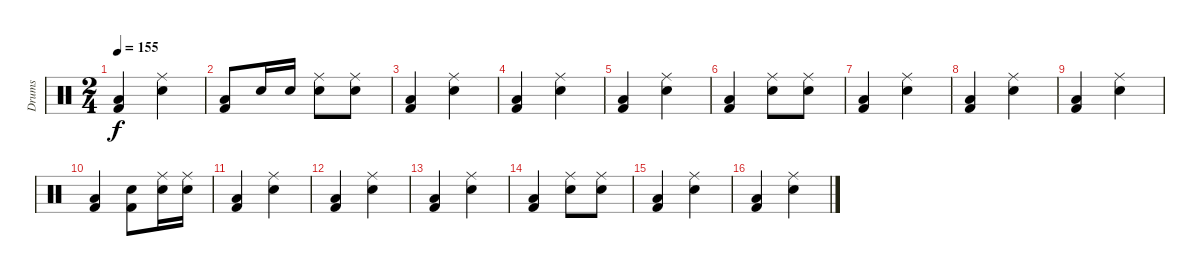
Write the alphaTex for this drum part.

\track ("Drums" "Drums") {instrument percussion}
\staff {score}
\articulation defaults
\ts (2 4)
\tempo 155
\clef neutral
\ks c
("Low Floor Tom (hit)" "Kick (hit) 2").4{dy f} ("Snare (hit) 2" "Ride (middle)").4 |
("Low Floor Tom (hit)" "Kick (hit) 2").8 "Snare (hit) 2".16 "Snare (hit) 2".16 ("Snare (hit) 2" "Ride (middle)").8 ("Snare (hit) 2" "Ride (middle)").8 |
("Low Floor Tom (hit)" "Kick (hit) 2").4 ("Snare (hit) 2" "Ride (middle)").4 |
("Low Floor Tom (hit)" "Kick (hit) 2").4 ("Snare (hit) 2" "Ride (middle)").4 |
("Low Floor Tom (hit)" "Kick (hit) 2").4 ("Snare (hit) 2" "Ride (middle)").4 |
("Low Floor Tom (hit)" "Kick (hit) 2").4 ("Snare (hit) 2" "Ride (middle)").8 ("Snare (hit) 2" "Ride (middle)").8 |
("Low Floor Tom (hit)" "Kick (hit) 2").4 ("Snare (hit) 2" "Ride (middle)").4 |
("Low Floor Tom (hit)" "Kick (hit) 2").4 ("Snare (hit) 2" "Ride (middle)").4 |
("Low Floor Tom (hit)" "Kick (hit) 2").4 ("Snare (hit) 2" "Ride (middle)").4 |
("Low Floor Tom (hit)" "Kick (hit) 2").4 ("Snare (hit) 2" "Kick (hit) 2").8 ("Snare (hit) 2" "Ride (middle)").16 ("Snare (hit) 2" "Ride (middle)").16 |
("Low Floor Tom (hit)" "Kick (hit) 2").4 ("Snare (hit) 2" "Ride (middle)").4 |
("Low Floor Tom (hit)" "Kick (hit) 2").4 ("Snare (hit) 2" "Ride (middle)").4 |
("Low Floor Tom (hit)" "Kick (hit) 2").4 ("Snare (hit) 2" "Ride (middle)").4 |
("Low Floor Tom (hit)" "Kick (hit) 2").4 ("Snare (hit) 2" "Ride (middle)").8 ("Snare (hit) 2" "Ride (middle)").8 |
("Low Floor Tom (hit)" "Kick (hit) 2").4 ("Snare (hit) 2" "Ride (middle)").4 |
("Low Floor Tom (hit)" "Kick (hit) 2").4 ("Snare (hit) 2" "Ride (middle)").4
